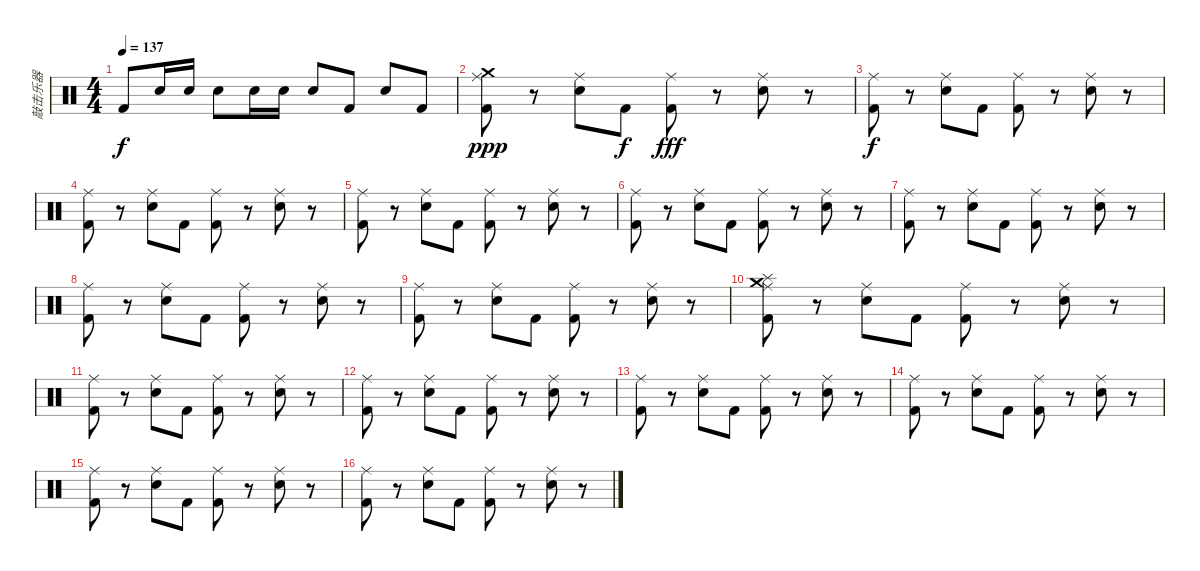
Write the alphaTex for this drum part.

\track ("敲击乐器" "敲击乐器") {instrument percussion}
\staff {score}
\articulation defaults
\ts (4 4)
\tempo 137
\clef neutral
\ks c "Kick (hit) 2".8{dy f} "Snare (hit) 2".16 "Snare (hit) 2".16 "Snare (hit) 2".8 "Snare (hit) 2".16 "Snare (hit) 2".16 "Snare (hit) 2".8 "Kick (hit) 2".8 "Snare (hit) 2".8 "Kick (hit) 2".8
|
("Crash medium (hit)" "Kick (hit) 2" "Ride (middle)").8{dy ppp} r.8 ("Snare (hit) 2" "Ride (middle)").8 "Kick (hit) 2".8{dy f} ("Kick (hit) 2" "Ride (middle)").8{dy fff} r.8 ("Snare (hit) 2" "Ride (middle)").8 r.8 |
("Kick (hit) 2" "Ride (middle)").8{dy f} r.8 ("Snare (hit) 2" "Ride (middle)").8 "Kick (hit) 2".8 ("Kick (hit) 2" "Ride (middle)").8 r.8 ("Snare (hit) 2" "Ride (middle)").8 r.8 |
("Kick (hit) 2" "Ride (middle)").8 r.8 ("Snare (hit) 2" "Ride (middle)").8 "Kick (hit) 2".8 ("Kick (hit) 2" "Ride (middle)").8 r.8 ("Snare (hit) 2" "Ride (middle)").8 r.8 |
("Kick (hit) 2" "Ride (middle)").8 r.8 ("Snare (hit) 2" "Ride (middle)").8 "Kick (hit) 2".8 ("Kick (hit) 2" "Ride (middle)").8 r.8 ("Snare (hit) 2" "Ride (middle)").8 r.8 |
("Kick (hit) 2" "Ride (middle)").8 r.8 ("Snare (hit) 2" "Ride (middle)").8 "Kick (hit) 2".8 ("Kick (hit) 2" "Ride (middle)").8 r.8 ("Snare (hit) 2" "Ride (middle)").8 r.8 |
("Kick (hit) 2" "Ride (middle)").8 r.8 ("Snare (hit) 2" "Ride (middle)").8 "Kick (hit) 2".8 ("Kick (hit) 2" "Ride (middle)").8 r.8 ("Snare (hit) 2" "Ride (middle)").8 r.8 |
("Kick (hit) 2" "Ride (middle)").8 r.8 ("Snare (hit) 2" "Ride (middle)").8 "Kick (hit) 2".8 ("Kick (hit) 2" "Ride (middle)").8 r.8 ("Snare (hit) 2" "Ride (middle)").8 r.8 |
("Kick (hit) 2" "Ride (middle)").8 r.8 ("Snare (hit) 2" "Ride (middle)").8 "Kick (hit) 2".8 ("Kick (hit) 2" "Ride (middle)").8 r.8 ("Snare (hit) 2" "Ride (middle)").8 r.8 |
("Splash (hit)" "Crash medium (hit)" "Kick (hit) 2" "Ride (middle)").8 r.8 ("Snare (hit) 2" "Ride (middle)").8 "Kick (hit) 2".8 ("Kick (hit) 2" "Ride (middle)").8 r.8 ("Snare (hit) 2" "Ride (middle)").8 r.8 |
("Kick (hit) 2" "Ride (middle)").8 r.8 ("Snare (hit) 2" "Ride (middle)").8 "Kick (hit) 2".8 ("Kick (hit) 2" "Ride (middle)").8 r.8 ("Snare (hit) 2" "Ride (middle)").8 r.8 |
("Kick (hit) 2" "Ride (middle)").8 r.8 ("Snare (hit) 2" "Ride (middle)").8 "Kick (hit) 2".8 ("Kick (hit) 2" "Ride (middle)").8 r.8 ("Snare (hit) 2" "Ride (middle)").8 r.8 |
("Kick (hit) 2" "Ride (middle)").8 r.8 ("Snare (hit) 2" "Ride (middle)").8 "Kick (hit) 2".8 ("Kick (hit) 2" "Ride (middle)").8 r.8 ("Snare (hit) 2" "Ride (middle)").8 r.8 |
("Kick (hit) 2" "Ride (middle)").8 r.8 ("Snare (hit) 2" "Ride (middle)").8 "Kick (hit) 2".8 ("Kick (hit) 2" "Ride (middle)").8 r.8 ("Snare (hit) 2" "Ride (middle)").8 r.8 |
("Kick (hit) 2" "Ride (middle)").8 r.8 ("Snare (hit) 2" "Ride (middle)").8 "Kick (hit) 2".8 ("Kick (hit) 2" "Ride (middle)").8 r.8 ("Snare (hit) 2" "Ride (middle)").8 r.8 |
("Kick (hit) 2" "Ride (middle)").8 r.8 ("Snare (hit) 2" "Ride (middle)").8 "Kick (hit) 2".8 ("Kick (hit) 2" "Ride (middle)").8 r.8 ("Snare (hit) 2" "Ride (middle)").8 r.8
